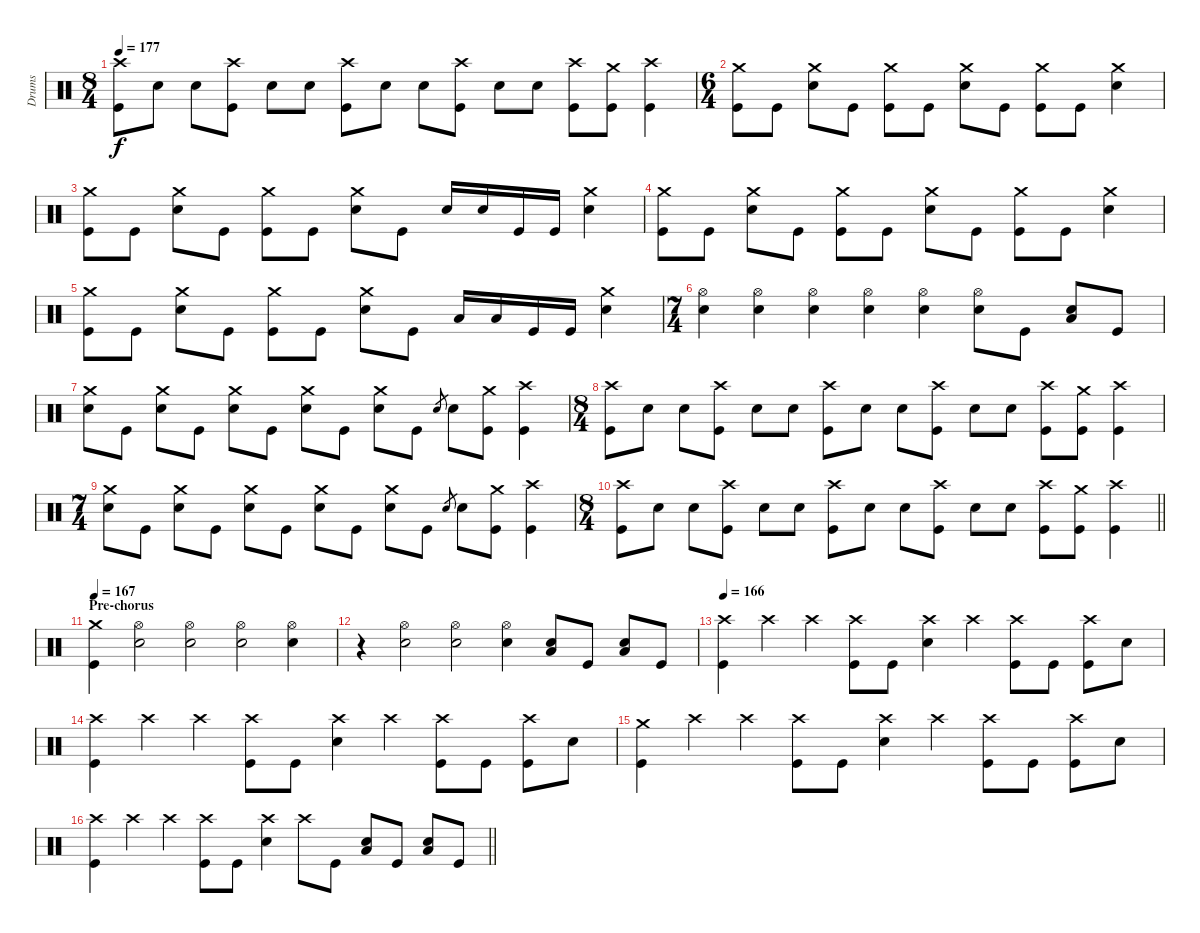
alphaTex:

\track ("Drums" "Drums") {instrument percussion}
\staff {score}
\articulation defaults
\ts (8 4)
\tempo 177
\clef neutral
\ks c
("Crash high (hit)" "Kick (hit)").8{dy f} "Electric Snare (hit)".8 "Electric Snare (hit)".8 ("Crash high (hit)" "Kick (hit)").8 "Electric Snare (hit)".8 "Electric Snare (hit)".8 ("Crash high (hit)" "Kick (hit)").8 "Electric Snare (hit)".8 "Electric Snare (hit)".8 ("Crash high (hit)" "Kick (hit)").8 "Electric Snare (hit)".8 "Electric Snare (hit)".8 ("Crash high (hit)" "Kick (hit)").8 ("Crash medium (hit)" "Kick (hit)").8 ("Crash high (hit)" "Kick (hit)").4 |
\ts (6 4)
("Crash medium (hit)" "Kick (hit)").8 "Kick (hit)".8 ("Crash medium (hit)" "Electric Snare (hit)").8 "Kick (hit)".8 ("Crash medium (hit)" "Kick (hit)").8 "Kick (hit)".8 ("Crash medium (hit)" "Electric Snare (hit)").8 "Kick (hit)".8 ("Crash medium (hit)" "Kick (hit)").8 "Kick (hit)".8 ("Crash medium (hit)" "Electric Snare (hit)").4 |
("Crash medium (hit)" "Kick (hit)").8 "Kick (hit)".8 ("Crash medium (hit)" "Electric Snare (hit)").8 "Kick (hit)".8 ("Crash medium (hit)" "Kick (hit)").8 "Kick (hit)".8 ("Crash medium (hit)" "Electric Snare (hit)").8 "Kick (hit)".8 "Electric Snare (hit)".16 "Electric Snare (hit)".16 "Kick (hit)".16 "Kick (hit)".16 ("Crash medium (hit)" "Electric Snare (hit)").4 |
("Crash medium (hit)" "Kick (hit)").8 "Kick (hit)".8 ("Crash medium (hit)" "Electric Snare (hit)").8 "Kick (hit)".8 ("Crash medium (hit)" "Kick (hit)").8 "Kick (hit)".8 ("Crash medium (hit)" "Electric Snare (hit)").8 "Kick (hit)".8 ("Crash medium (hit)" "Kick (hit)").8 "Kick (hit)".8 ("Crash medium (hit)" "Electric Snare (hit)").4 |
("Crash medium (hit)" "Kick (hit)").8 "Kick (hit)".8 ("Crash medium (hit)" "Electric Snare (hit)").8 "Kick (hit)".8 ("Crash medium (hit)" "Kick (hit)").8 "Kick (hit)".8 ("Crash medium (hit)" "Electric Snare (hit)").8 "Kick (hit)".8 "Low Floor Tom (hit)".16 "Low Floor Tom (hit)".16 "Kick (hit)".16 "Kick (hit)".16 ("Crash medium (hit)" "Electric Snare (hit)").4 |
\ts (7 4)
("Hi-Hat (open)" "Electric Snare (hit)").4 ("Hi-Hat (open)" "Electric Snare (hit)").4 ("Hi-Hat (open)" "Electric Snare (hit)").4 ("Hi-Hat (open)" "Electric Snare (hit)").4 ("Hi-Hat (open)" "Electric Snare (hit)").4 ("Hi-Hat (open)" "Electric Snare (hit)").8 "Kick (hit)".8 ("Electric Snare (hit)" "Low Floor Tom (hit)").8 "Kick (hit)".8 |
("Crash medium (hit)" "Electric Snare (hit)").8 "Kick (hit)".8 ("Crash medium (hit)" "Electric Snare (hit)").8 "Kick (hit)".8 ("Crash medium (hit)" "Electric Snare (hit)").8 "Kick (hit)".8 ("Crash medium (hit)" "Electric Snare (hit)").8 "Kick (hit)".8 ("Crash medium (hit)" "Electric Snare (hit)").8 "Kick (hit)".8 "Electric Snare (hit)".8{gr} "Electric Snare (hit)".8 ("Crash medium (hit)" "Kick (hit)").8 ("Crash high (hit)" "Kick (hit)").4 |
\ts (8 4)
("Crash high (hit)" "Kick (hit)").8 "Electric Snare (hit)".8 "Electric Snare (hit)".8 ("Crash high (hit)" "Kick (hit)").8 "Electric Snare (hit)".8 "Electric Snare (hit)".8 ("Crash high (hit)" "Kick (hit)").8 "Electric Snare (hit)".8 "Electric Snare (hit)".8 ("Crash high (hit)" "Kick (hit)").8 "Electric Snare (hit)".8 "Electric Snare (hit)".8 ("Crash high (hit)" "Kick (hit)").8 ("Crash medium (hit)" "Kick (hit)").8 ("Crash high (hit)" "Kick (hit)").4 |
\ts (7 4)
("Crash medium (hit)" "Electric Snare (hit)").8 "Kick (hit)".8 ("Crash medium (hit)" "Electric Snare (hit)").8 "Kick (hit)".8 ("Crash medium (hit)" "Electric Snare (hit)").8 "Kick (hit)".8 ("Crash medium (hit)" "Electric Snare (hit)").8 "Kick (hit)".8 ("Crash medium (hit)" "Electric Snare (hit)").8 "Kick (hit)".8 "Electric Snare (hit)".8{gr} "Electric Snare (hit)".8 ("Crash medium (hit)" "Kick (hit)").8 ("Crash high (hit)" "Kick (hit)").4 |
\ts (8 4)
\barLineRight lightlight
("Crash high (hit)" "Kick (hit)").8 "Electric Snare (hit)".8 "Electric Snare (hit)".8 ("Crash high (hit)" "Kick (hit)").8 "Electric Snare (hit)".8 "Electric Snare (hit)".8 ("Crash high (hit)" "Kick (hit)").8 "Electric Snare (hit)".8 "Electric Snare (hit)".8 ("Crash high (hit)" "Kick (hit)").8 "Electric Snare (hit)".8 "Electric Snare (hit)".8 ("Crash high (hit)" "Kick (hit)").8 ("Crash medium (hit)" "Kick (hit)").8 ("Crash high (hit)" "Kick (hit)").4 |
\section ("" "Pre-chorus")
\tempo 167
("Crash medium (hit)" "Kick (hit)").4 ("Hi-Hat (open)" "Electric Snare (hit)").2 ("Hi-Hat (open)" "Electric Snare (hit)").2 ("Hi-Hat (open)" "Electric Snare (hit)").2 ("Hi-Hat (open)" "Electric Snare (hit)").4 |
r.4 ("Hi-Hat (open)" "Electric Snare (hit)").2 ("Hi-Hat (open)" "Electric Snare (hit)").2 ("Hi-Hat (open)" "Electric Snare (hit)").4 ("Electric Snare (hit)" "Low Floor Tom (hit)").8 "Kick (hit)".8 ("Electric Snare (hit)" "Low Floor Tom (hit)").8 "Kick (hit)".8 |
\tempo 166
("Crash high (hit)" "Kick (hit)").4 "Crash high (hit)".4 "Crash high (hit)".4 ("Crash high (hit)" "Kick (hit)").8 "Kick (hit)".8 ("Crash high (hit)" "Electric Snare (hit)").4 "Crash high (hit)".4 ("Crash high (hit)" "Kick (hit)").8 "Kick (hit)".8 ("Crash high (hit)" "Kick (hit)").8 "Electric Snare (hit)".8 |
("Crash high (hit)" "Kick (hit)").4 "Crash high (hit)".4 "Crash high (hit)".4 ("Crash high (hit)" "Kick (hit)").8 "Kick (hit)".8 ("Crash high (hit)" "Electric Snare (hit)").4 "Crash high (hit)".4 ("Crash high (hit)" "Kick (hit)").8 "Kick (hit)".8 ("Crash high (hit)" "Kick (hit)").8 "Electric Snare (hit)".8 |
("Crash medium (hit)" "Kick (hit)").4 "Crash high (hit)".4 "Crash high (hit)".4 ("Crash high (hit)" "Kick (hit)").8 "Kick (hit)".8 ("Crash high (hit)" "Electric Snare (hit)").4 "Crash high (hit)".4 ("Crash high (hit)" "Kick (hit)").8 "Kick (hit)".8 ("Crash high (hit)" "Kick (hit)").8 "Electric Snare (hit)".8 |
\barLineRight lightlight
("Crash high (hit)" "Kick (hit)").4 "Crash high (hit)".4 "Crash high (hit)".4 ("Crash high (hit)" "Kick (hit)").8 "Kick (hit)".8 ("Crash high (hit)" "Electric Snare (hit)").4 "Crash high (hit)".8 "Kick (hit)".8 ("Electric Snare (hit)" "Low Floor Tom (hit)").8 "Kick (hit)".8 ("Electric Snare (hit)" "Low Floor Tom (hit)").8 "Kick (hit)".8
